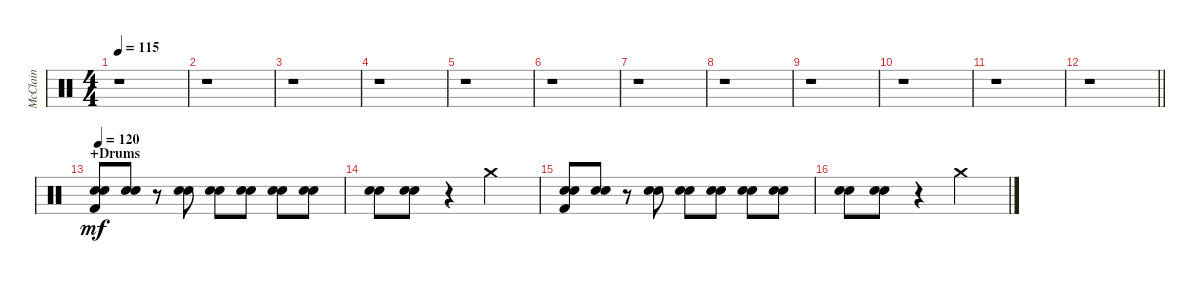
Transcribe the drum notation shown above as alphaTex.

\track ("McClain" "McClain") {instrument percussion}
\staff {score}
\articulation defaults
\ts (4 4)
\tempo 115
\clef neutral
\ks c
r.1{dy mf} |
r.1 |
r.1 |
r.1 |
r.1 |
r.1 |
r.1 |
r.1 |
r.1 |
r.1 |
r.1 |
\barLineRight lightlight
r.1 |
\section ("" "+Drums")
\tempo 120
("Snare (hit) 2" "Electric Snare (hit)" "Kick (hit) 2").8 ("Snare (hit) 2" "Electric Snare (hit)").8 r.8 ("Snare (hit) 2" "Electric Snare (hit)").8 ("Snare (hit) 2" "Electric Snare (hit)").8 ("Snare (hit) 2" "Electric Snare (hit)").8 ("Snare (hit) 2" "Electric Snare (hit)").8 ("Snare (hit) 2" "Electric Snare (hit)").8 |
("Snare (hit) 2" "Electric Snare (hit)").8 ("Snare (hit) 2" "Electric Snare (hit)").8 r.4 "Crash medium (hit)".2 |
("Snare (hit) 2" "Electric Snare (hit)" "Kick (hit) 2").8 ("Snare (hit) 2" "Electric Snare (hit)").8 r.8 ("Snare (hit) 2" "Electric Snare (hit)").8 ("Snare (hit) 2" "Electric Snare (hit)").8 ("Snare (hit) 2" "Electric Snare (hit)").8 ("Snare (hit) 2" "Electric Snare (hit)").8 ("Snare (hit) 2" "Electric Snare (hit)").8 |
("Snare (hit) 2" "Electric Snare (hit)").8 ("Snare (hit) 2" "Electric Snare (hit)").8 r.4 "Crash medium (hit)".2
